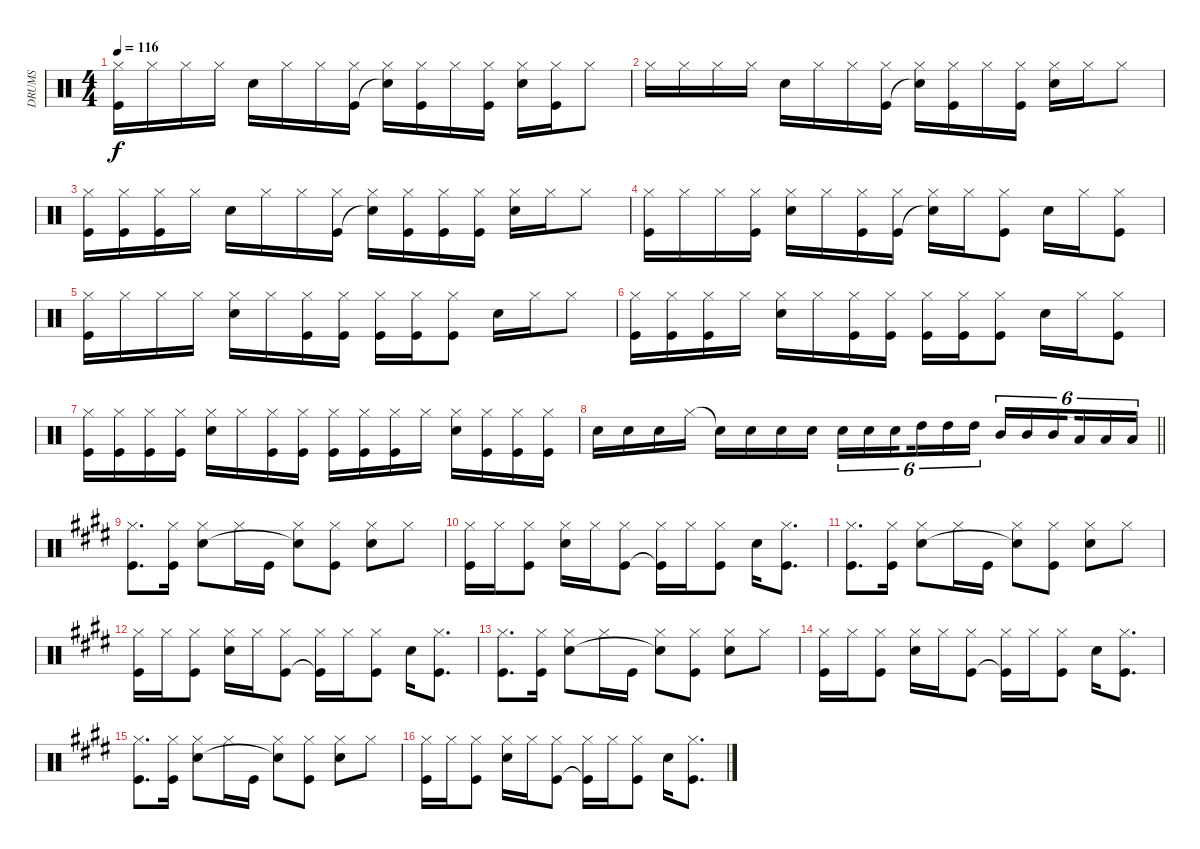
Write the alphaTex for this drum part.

\track ("DRUMS" "DRUMS") {instrument percussion}
\staff {score}
\articulation defaults
\ts (4 4)
\tempo 116
\clef neutral
\ks c
("Hi-Hat (closed)" "Kick (hit)").16{dy f} "Hi-Hat (closed)".16 "Hi-Hat (closed)".16 "Hi-Hat (closed)".16 "Snare (hit) 2".16 "Hi-Hat (closed)".16 "Hi-Hat (closed)".16 ("Hi-Hat (closed)" "Kick (hit)").16 ("Hi-Hat (closed)" "Snare (hit)"{t}).16 ("Hi-Hat (closed)" "Kick (hit)").16 "Hi-Hat (closed)".16 ("Hi-Hat (closed)" "Kick (hit)").16 ("Hi-Hat (closed)" "Snare (hit) 2").16 ("Hi-Hat (closed)" "Kick (hit)").16 "Hi-Hat (closed)".8 |
"Hi-Hat (closed)".16 "Hi-Hat (closed)".16 "Hi-Hat (closed)".16 "Hi-Hat (closed)".16 "Snare (hit) 2".16 "Hi-Hat (closed)".16 "Hi-Hat (closed)".16 ("Hi-Hat (closed)" "Kick (hit)").16 ("Hi-Hat (closed)" "Snare (hit)"{t}).16 ("Hi-Hat (closed)" "Kick (hit)").16 "Hi-Hat (closed)".16 ("Hi-Hat (closed)" "Kick (hit)").16 ("Hi-Hat (closed)" "Snare (hit) 2").16 "Hi-Hat (closed)".16 "Hi-Hat (closed)".8 |
("Hi-Hat (closed)" "Kick (hit)").16 ("Hi-Hat (closed)" "Kick (hit)").16 ("Hi-Hat (closed)" "Kick (hit)").16 "Hi-Hat (closed)".16 "Snare (hit) 2".16 "Hi-Hat (closed)".16 "Hi-Hat (closed)".16 ("Hi-Hat (closed)" "Kick (hit)").16 ("Hi-Hat (closed)" "Snare (hit)"{t}).16 ("Hi-Hat (closed)" "Kick (hit)").16 ("Hi-Hat (closed)" "Kick (hit)").16 ("Hi-Hat (closed)" "Kick (hit)").16 ("Hi-Hat (closed)" "Snare (hit) 2").16 "Hi-Hat (closed)".16 "Hi-Hat (closed)".8 |
("Hi-Hat (closed)" "Kick (hit)").16 "Hi-Hat (closed)".16 "Hi-Hat (closed)".16 ("Hi-Hat (closed)" "Kick (hit)").16 ("Hi-Hat (closed)" "Snare (hit) 2").16 "Hi-Hat (closed)".16 ("Hi-Hat (closed)" "Kick (hit)").16 ("Hi-Hat (closed)" "Kick (hit)").16 ("Hi-Hat (closed)" "Snare (hit)"{t}).16 "Hi-Hat (closed)".16 ("Hi-Hat (closed)" "Kick (hit)").8 "Snare (hit) 2".16 "Hi-Hat (closed)".16 ("Hi-Hat (closed)" "Kick (hit)").8 |
("Hi-Hat (closed)" "Kick (hit)").16 "Hi-Hat (closed)".16 "Hi-Hat (closed)".16 "Hi-Hat (closed)".16 ("Hi-Hat (closed)" "Snare (hit) 2").16 "Hi-Hat (closed)".16 ("Hi-Hat (closed)" "Kick (hit)").16 ("Hi-Hat (closed)" "Kick (hit)").16 ("Hi-Hat (closed)" "Kick (hit)").16 ("Hi-Hat (closed)" "Kick (hit)").16 ("Hi-Hat (closed)" "Kick (hit)").8 "Snare (hit) 2".16 "Hi-Hat (closed)".16 "Hi-Hat (closed)".8 |
("Hi-Hat (closed)" "Kick (hit)").16 ("Hi-Hat (closed)" "Kick (hit)").16 ("Hi-Hat (closed)" "Kick (hit)").16 "Hi-Hat (closed)".16 ("Hi-Hat (closed)" "Snare (hit) 2").16 "Hi-Hat (closed)".16 ("Hi-Hat (closed)" "Kick (hit)").16 ("Hi-Hat (closed)" "Kick (hit)").16 ("Hi-Hat (closed)" "Kick (hit)").16 ("Hi-Hat (closed)" "Kick (hit)").16 ("Hi-Hat (closed)" "Kick (hit)").8 "Snare (hit) 2".16 "Hi-Hat (closed)".16 ("Hi-Hat (closed)" "Kick (hit)").8 |
("Hi-Hat (closed)" "Kick (hit)").16 ("Hi-Hat (closed)" "Kick (hit)").16 ("Hi-Hat (closed)" "Kick (hit)").16 ("Hi-Hat (closed)" "Kick (hit)").16 ("Hi-Hat (closed)" "Snare (hit) 2").16 "Hi-Hat (closed)".16 ("Hi-Hat (closed)" "Kick (hit)").16 ("Hi-Hat (closed)" "Kick (hit)").16 ("Hi-Hat (closed)" "Kick (hit)").16 ("Hi-Hat (closed)" "Kick (hit)").16 ("Hi-Hat (closed)" "Kick (hit)").16 "Hi-Hat (closed)".16 ("Hi-Hat (closed)" "Snare (hit) 2").16 ("Hi-Hat (closed)" "Kick (hit)").16 ("Hi-Hat (closed)" "Kick (hit)").16 ("Hi-Hat (closed)" "Kick (hit)").16 |
\barLineRight lightlight "Snare (hit) 2".16 "Snare (hit) 2".16 "Snare (hit) 2".16 "Hi-Hat (closed)".16 "Snare (hit)"{t}.16 "Snare (hit) 2".16 "Snare (hit) 2".16 "Snare (hit) 2".16 "Snare (hit) 2".16{tu (6 4)} "Snare (hit) 2".16{tu (6 4)} "Snare (hit) 2".16{tu (6 4) beam splitsecondary} "High Tom (hit)".16{tu (6 4)} "High Tom (hit)".16{tu (6 4)} "High Tom (hit)".16{tu (6 4)} "Mid Tom (hit)".16{tu (6 4)} "Mid Tom (hit)".16{tu (6 4)} "Mid Tom (hit)".16{tu (6 4) beam splitsecondary} "Low Tom (hit)".16{tu (6 4)} "Low Tom (hit)".16{tu (6 4)} "Low Tom (hit)".16{tu (6 4)}
|
\ks c#minor
("Hi-Hat (closed)" "Kick (hit)").8{d} ("Hi-Hat (closed)" "Kick (hit)").16 ("Hi-Hat (closed)" "Snare (hit) 2").8 "Hi-Hat (closed)".16 "Kick (hit)".16 ("Hi-Hat (closed)" "Snare (hit)"{t}).8 ("Hi-Hat (closed)" "Kick (hit)").8 ("Hi-Hat (closed)" "Snare (hit) 2").8 "Hi-Hat (closed)".8 |
("Hi-Hat (closed)" "Kick (hit)").16 "Hi-Hat (closed)".16 ("Hi-Hat (closed)" "Kick (hit)").8 ("Hi-Hat (closed)" "Snare (hit) 2").16 "Hi-Hat (closed)".16 ("Hi-Hat (closed)" "Kick (hit)").8 ("Hi-Hat (closed)" "Kick (hit)"{t}).16 "Hi-Hat (closed)".16 ("Hi-Hat (closed)" "Kick (hit)").8 "Snare (hit) 2".16 ("Hi-Hat (closed)" "Kick (hit)").8{d} |
("Hi-Hat (closed)" "Kick (hit)").8{d} ("Hi-Hat (closed)" "Kick (hit)").16 ("Hi-Hat (closed)" "Snare (hit) 2").8 "Hi-Hat (closed)".16 "Kick (hit)".16 ("Hi-Hat (closed)" "Snare (hit)"{t}).8 ("Hi-Hat (closed)" "Kick (hit)").8 ("Hi-Hat (closed)" "Snare (hit) 2").8 "Hi-Hat (closed)".8 |
("Hi-Hat (closed)" "Kick (hit)").16 "Hi-Hat (closed)".16 ("Hi-Hat (closed)" "Kick (hit)").8 ("Hi-Hat (closed)" "Snare (hit) 2").16 "Hi-Hat (closed)".16 ("Hi-Hat (closed)" "Kick (hit)").8 ("Hi-Hat (closed)" "Kick (hit)"{t}).16 "Hi-Hat (closed)".16 ("Hi-Hat (closed)" "Kick (hit)").8 "Snare (hit) 2".16 ("Hi-Hat (closed)" "Kick (hit)").8{d} |
("Hi-Hat (closed)" "Kick (hit)").8{d} ("Hi-Hat (closed)" "Kick (hit)").16 ("Hi-Hat (closed)" "Snare (hit) 2").8 "Hi-Hat (closed)".16 "Kick (hit)".16 ("Hi-Hat (closed)" "Snare (hit)"{t}).8 ("Hi-Hat (closed)" "Kick (hit)").8 ("Hi-Hat (closed)" "Snare (hit) 2").8 "Hi-Hat (closed)".8 |
("Hi-Hat (closed)" "Kick (hit)").16 "Hi-Hat (closed)".16 ("Hi-Hat (closed)" "Kick (hit)").8 ("Hi-Hat (closed)" "Snare (hit) 2").16 "Hi-Hat (closed)".16 ("Hi-Hat (closed)" "Kick (hit)").8 ("Hi-Hat (closed)" "Kick (hit)"{t}).16 "Hi-Hat (closed)".16 ("Hi-Hat (closed)" "Kick (hit)").8 "Snare (hit) 2".16 ("Hi-Hat (closed)" "Kick (hit)").8{d} |
("Hi-Hat (closed)" "Kick (hit)").8{d} ("Hi-Hat (closed)" "Kick (hit)").16 ("Hi-Hat (closed)" "Snare (hit) 2").8 "Hi-Hat (closed)".16 "Kick (hit)".16 ("Hi-Hat (closed)" "Snare (hit)"{t}).8 ("Hi-Hat (closed)" "Kick (hit)").8 ("Hi-Hat (closed)" "Snare (hit) 2").8 "Hi-Hat (closed)".8 |
("Hi-Hat (closed)" "Kick (hit)").16 "Hi-Hat (closed)".16 ("Hi-Hat (closed)" "Kick (hit)").8 ("Hi-Hat (closed)" "Snare (hit) 2").16 "Hi-Hat (closed)".16 ("Hi-Hat (closed)" "Kick (hit)").8 ("Hi-Hat (closed)" "Kick (hit)"{t}).16 "Hi-Hat (closed)".16 ("Hi-Hat (closed)" "Kick (hit)").8 "Snare (hit) 2".16 ("Hi-Hat (closed)" "Kick (hit)").8{d}
